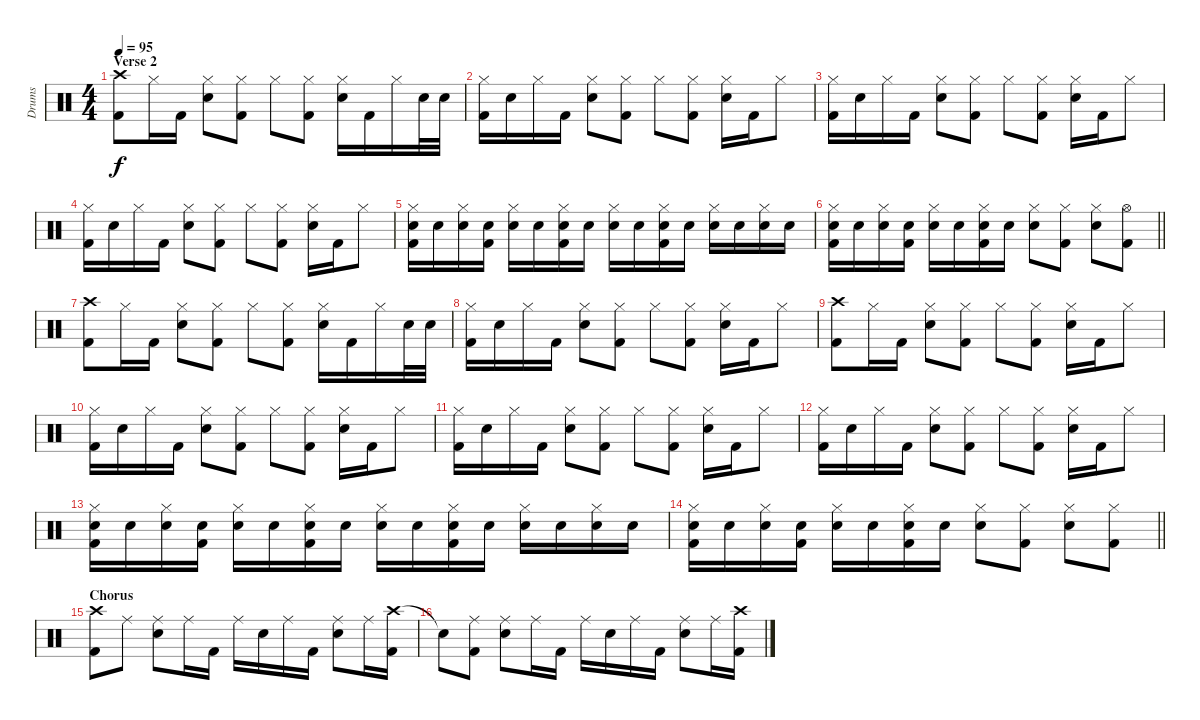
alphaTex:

\track ("Drums" "Drums") {instrument percussion}
\staff {score}
\articulation defaults
\ts (4 4)
\section ("" "Verse 2")
\tempo 95
\clef neutral
\ks c
("Crash high (hit)" "Kick (hit) 2").8{dy f} "Hi-Hat (closed)".16 "Kick (hit) 2".16 ("Hi-Hat (closed)" "Snare (hit) 2").8 ("Hi-Hat (closed)" "Kick (hit) 2").8 "Hi-Hat (closed)".8 ("Hi-Hat (closed)" "Kick (hit) 2").8 ("Hi-Hat (closed)" "Snare (hit) 2").16 "Kick (hit) 2".16 "Hi-Hat (closed)".16 "Snare (hit) 2".32 "Snare (hit) 2".32 |
("Hi-Hat (closed)" "Kick (hit) 2").16 "Snare (hit) 2".16 "Hi-Hat (closed)".16 "Kick (hit) 2".16 ("Hi-Hat (closed)" "Snare (hit) 2").8 ("Hi-Hat (closed)" "Kick (hit) 2").8 "Hi-Hat (closed)".8 ("Hi-Hat (closed)" "Kick (hit) 2").8 ("Hi-Hat (closed)" "Snare (hit) 2").16 "Kick (hit) 2".16 "Hi-Hat (closed)".8 |
("Hi-Hat (closed)" "Kick (hit) 2").16 "Snare (hit) 2".16 "Hi-Hat (closed)".16 "Kick (hit) 2".16 ("Hi-Hat (closed)" "Snare (hit) 2").8 ("Hi-Hat (closed)" "Kick (hit) 2").8 "Hi-Hat (closed)".8 ("Hi-Hat (closed)" "Kick (hit) 2").8 ("Hi-Hat (closed)" "Snare (hit) 2").16 "Kick (hit) 2".16 "Hi-Hat (closed)".8 |
("Hi-Hat (closed)" "Kick (hit) 2").16 "Snare (hit) 2".16 "Hi-Hat (closed)".16 "Kick (hit) 2".16 ("Hi-Hat (closed)" "Snare (hit) 2").8 ("Hi-Hat (closed)" "Kick (hit) 2").8 "Hi-Hat (closed)".8 ("Hi-Hat (closed)" "Kick (hit) 2").8 ("Hi-Hat (closed)" "Snare (hit) 2").16 "Kick (hit) 2".16 "Hi-Hat (closed)".8 |
("Hi-Hat (closed)" "Snare (hit) 2" "Kick (hit) 2").16 "Snare (hit) 2".16 ("Hi-Hat (closed)" "Snare (hit) 2").16 ("Snare (hit) 2" "Kick (hit) 2").16 ("Hi-Hat (closed)" "Snare (hit) 2").16 "Snare (hit) 2".16 ("Hi-Hat (closed)" "Snare (hit) 2" "Kick (hit) 2").16 "Snare (hit) 2".16 ("Hi-Hat (closed)" "Snare (hit) 2").16 "Snare (hit) 2".16 ("Hi-Hat (closed)" "Snare (hit) 2" "Kick (hit) 2").16 "Snare (hit) 2".16 ("Hi-Hat (closed)" "Snare (hit) 2").16 "Snare (hit) 2".16 ("Hi-Hat (closed)" "Snare (hit) 2").16 "Snare (hit) 2".16 |
\barLineRight lightlight
("Hi-Hat (closed)" "Snare (hit) 2" "Kick (hit) 2").16 "Snare (hit) 2".16 ("Hi-Hat (closed)" "Snare (hit) 2").16 ("Snare (hit) 2" "Kick (hit) 2").16 ("Hi-Hat (closed)" "Snare (hit) 2").16 "Snare (hit) 2".16 ("Hi-Hat (closed)" "Snare (hit) 2" "Kick (hit) 2").16 "Snare (hit) 2".16 ("Hi-Hat (closed)" "Snare (hit) 2").8 ("Hi-Hat (closed)" "Kick (hit) 2").8 ("Hi-Hat (closed)" "Snare (hit) 2").8 ("Hi-Hat (open)" "Kick (hit) 2").8 |
("Crash high (hit)" "Kick (hit) 2").8 "Hi-Hat (closed)".16 "Kick (hit) 2".16 ("Hi-Hat (closed)" "Snare (hit) 2").8 ("Hi-Hat (closed)" "Kick (hit) 2").8 "Hi-Hat (closed)".8 ("Hi-Hat (closed)" "Kick (hit) 2").8 ("Hi-Hat (closed)" "Snare (hit) 2").16 "Kick (hit) 2".16 "Hi-Hat (closed)".16 "Snare (hit) 2".32 "Snare (hit) 2".32 |
("Hi-Hat (closed)" "Kick (hit) 2").16 "Snare (hit) 2".16 "Hi-Hat (closed)".16 "Kick (hit) 2".16 ("Hi-Hat (closed)" "Snare (hit) 2").8 ("Hi-Hat (closed)" "Kick (hit) 2").8 "Hi-Hat (closed)".8 ("Hi-Hat (closed)" "Kick (hit) 2").8 ("Hi-Hat (closed)" "Snare (hit) 2").16 "Kick (hit) 2".16 "Hi-Hat (closed)".8 |
("Crash high (hit)" "Kick (hit) 2").8 "Hi-Hat (closed)".16 "Kick (hit) 2".16 ("Hi-Hat (closed)" "Snare (hit) 2").8 ("Hi-Hat (closed)" "Kick (hit) 2").8 "Hi-Hat (closed)".8 ("Hi-Hat (closed)" "Kick (hit) 2").8 ("Hi-Hat (closed)" "Snare (hit) 2").16 "Kick (hit) 2".16 "Hi-Hat (closed)".8 |
("Hi-Hat (closed)" "Kick (hit) 2").16 "Snare (hit) 2".16 "Hi-Hat (closed)".16 "Kick (hit) 2".16 ("Hi-Hat (closed)" "Snare (hit) 2").8 ("Hi-Hat (closed)" "Kick (hit) 2").8 "Hi-Hat (closed)".8 ("Hi-Hat (closed)" "Kick (hit) 2").8 ("Hi-Hat (closed)" "Snare (hit) 2").16 "Kick (hit) 2".16 "Hi-Hat (closed)".8 |
("Hi-Hat (closed)" "Kick (hit) 2").16 "Snare (hit) 2".16 "Hi-Hat (closed)".16 "Kick (hit) 2".16 ("Hi-Hat (closed)" "Snare (hit) 2").8 ("Hi-Hat (closed)" "Kick (hit) 2").8 "Hi-Hat (closed)".8 ("Hi-Hat (closed)" "Kick (hit) 2").8 ("Hi-Hat (closed)" "Snare (hit) 2").16 "Kick (hit) 2".16 "Hi-Hat (closed)".8 |
("Hi-Hat (closed)" "Kick (hit) 2").16 "Snare (hit) 2".16 "Hi-Hat (closed)".16 "Kick (hit) 2".16 ("Hi-Hat (closed)" "Snare (hit) 2").8 ("Hi-Hat (closed)" "Kick (hit) 2").8 "Hi-Hat (closed)".8 ("Hi-Hat (closed)" "Kick (hit) 2").8 ("Hi-Hat (closed)" "Snare (hit) 2").16 "Kick (hit) 2".16 "Hi-Hat (closed)".8 |
("Hi-Hat (closed)" "Snare (hit) 2" "Kick (hit) 2").16 "Snare (hit) 2".16 ("Hi-Hat (closed)" "Snare (hit) 2").16 ("Snare (hit) 2" "Kick (hit) 2").16 ("Hi-Hat (closed)" "Snare (hit) 2").16 "Snare (hit) 2".16 ("Hi-Hat (closed)" "Snare (hit) 2" "Kick (hit) 2").16 "Snare (hit) 2".16 ("Hi-Hat (closed)" "Snare (hit) 2").16 "Snare (hit) 2".16 ("Hi-Hat (closed)" "Snare (hit) 2" "Kick (hit) 2").16 "Snare (hit) 2".16 ("Hi-Hat (closed)" "Snare (hit) 2").16 "Snare (hit) 2".16 ("Hi-Hat (closed)" "Snare (hit) 2").16 "Snare (hit) 2".16 |
\barLineRight lightlight
("Hi-Hat (closed)" "Snare (hit) 2" "Kick (hit) 2").16 "Snare (hit) 2".16 ("Hi-Hat (closed)" "Snare (hit) 2").16 ("Snare (hit) 2" "Kick (hit) 2").16 ("Hi-Hat (closed)" "Snare (hit) 2").16 "Snare (hit) 2".16 ("Hi-Hat (closed)" "Snare (hit) 2" "Kick (hit) 2").16 "Snare (hit) 2".16 ("Hi-Hat (closed)" "Snare (hit) 2").8 ("Hi-Hat (closed)" "Kick (hit) 2").8 ("Hi-Hat (closed)" "Snare (hit) 2").8 ("Hi-Hat (closed)" "Kick (hit) 2").8 |
\section ("" "Chorus")
("Crash high (hit)" "Kick (hit) 2").8 "Ride (middle)".8 ("Ride (middle)" "Snare (hit) 2").8 "Ride (middle)".16 "Kick (hit) 2".16 "Ride (middle)".16 "Snare (hit) 2".16 "Ride (middle)".16 "Kick (hit) 2".16 ("Ride (middle)" "Snare (hit) 2").8 "Ride (middle)".16 ("Crash high (hit)" "Kick (hit) 2").16 |
"Snare (hit)"{t}.8 ("Ride (middle)" "Kick (hit) 2").8 ("Ride (middle)" "Snare (hit) 2").8 "Ride (middle)".16 "Kick (hit) 2".16 "Ride (middle)".16 "Snare (hit) 2".16 "Ride (middle)".16 "Kick (hit) 2".16 ("Ride (middle)" "Snare (hit) 2").8 "Ride (middle)".16 ("Crash high (hit)" "Kick (hit) 2").16
